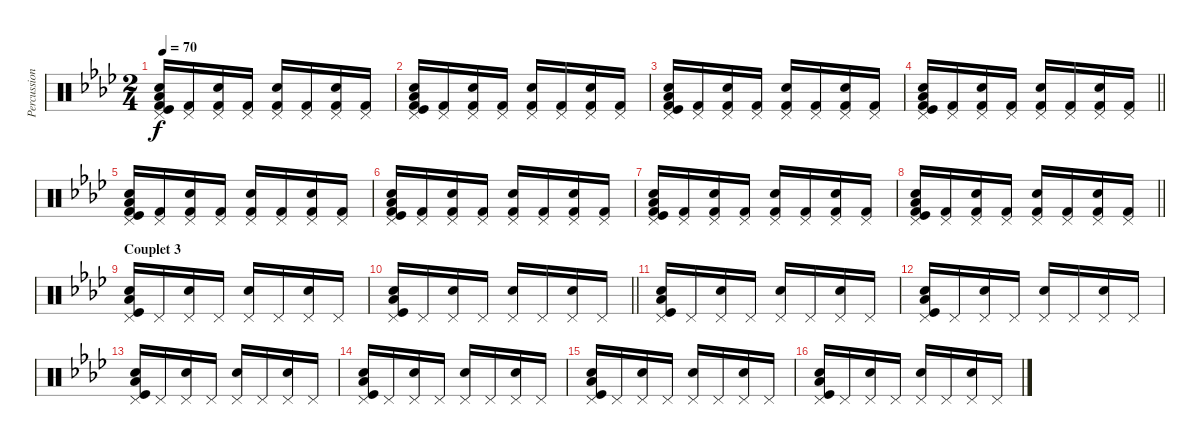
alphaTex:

\track ("Percussions" "Percussion") {instrument percussion}
\staff {score}
\articulation defaults
\ts (2 4)
\tempo 70
\clef neutral
\ks fminor
("Electric Snare (hit)" "Kick (hit)" "Pedal Hi-Hat (hit)" "Low Floor Tom (hit)" "Kick (hit) 2").16{dy f} ("Pedal Hi-Hat (hit)" "Kick (hit) 2").16 ("Electric Snare (hit)" "Pedal Hi-Hat (hit)" "Kick (hit) 2").16 ("Pedal Hi-Hat (hit)" "Kick (hit) 2").16 ("Electric Snare (hit)" "Pedal Hi-Hat (hit)" "Kick (hit) 2").16 ("Pedal Hi-Hat (hit)" "Kick (hit) 2").16 ("Electric Snare (hit)" "Pedal Hi-Hat (hit)" "Kick (hit) 2").16 ("Pedal Hi-Hat (hit)" "Kick (hit) 2").16 |
("Electric Snare (hit)" "Kick (hit)" "Pedal Hi-Hat (hit)" "Low Floor Tom (hit)" "Kick (hit) 2").16 ("Pedal Hi-Hat (hit)" "Kick (hit) 2").16 ("Electric Snare (hit)" "Pedal Hi-Hat (hit)" "Kick (hit) 2").16 ("Pedal Hi-Hat (hit)" "Kick (hit) 2").16 ("Electric Snare (hit)" "Pedal Hi-Hat (hit)" "Kick (hit) 2").16 ("Pedal Hi-Hat (hit)" "Kick (hit) 2").16 ("Electric Snare (hit)" "Pedal Hi-Hat (hit)" "Kick (hit) 2").16 ("Pedal Hi-Hat (hit)" "Kick (hit) 2").16 |
("Electric Snare (hit)" "Kick (hit)" "Pedal Hi-Hat (hit)" "Low Floor Tom (hit)" "Kick (hit) 2").16 ("Pedal Hi-Hat (hit)" "Kick (hit) 2").16 ("Electric Snare (hit)" "Pedal Hi-Hat (hit)" "Kick (hit) 2").16 ("Pedal Hi-Hat (hit)" "Kick (hit) 2").16 ("Electric Snare (hit)" "Pedal Hi-Hat (hit)" "Kick (hit) 2").16 ("Pedal Hi-Hat (hit)" "Kick (hit) 2").16 ("Electric Snare (hit)" "Pedal Hi-Hat (hit)" "Kick (hit) 2").16 ("Pedal Hi-Hat (hit)" "Kick (hit) 2").16 |
\barLineRight lightlight
("Electric Snare (hit)" "Kick (hit)" "Pedal Hi-Hat (hit)" "Low Floor Tom (hit)" "Kick (hit) 2").16 ("Pedal Hi-Hat (hit)" "Kick (hit) 2").16 ("Electric Snare (hit)" "Pedal Hi-Hat (hit)" "Kick (hit) 2").16 ("Pedal Hi-Hat (hit)" "Kick (hit) 2").16 ("Electric Snare (hit)" "Pedal Hi-Hat (hit)" "Kick (hit) 2").16 ("Pedal Hi-Hat (hit)" "Kick (hit) 2").16 ("Electric Snare (hit)" "Pedal Hi-Hat (hit)" "Kick (hit) 2").16 ("Pedal Hi-Hat (hit)" "Kick (hit) 2").16 |
("Electric Snare (hit)" "Kick (hit)" "Pedal Hi-Hat (hit)" "Low Floor Tom (hit)" "Kick (hit) 2").16 ("Pedal Hi-Hat (hit)" "Kick (hit) 2").16 ("Electric Snare (hit)" "Pedal Hi-Hat (hit)" "Kick (hit) 2").16 ("Pedal Hi-Hat (hit)" "Kick (hit) 2").16 ("Electric Snare (hit)" "Pedal Hi-Hat (hit)" "Kick (hit) 2").16 ("Pedal Hi-Hat (hit)" "Kick (hit) 2").16 ("Electric Snare (hit)" "Pedal Hi-Hat (hit)" "Kick (hit) 2").16 ("Pedal Hi-Hat (hit)" "Kick (hit) 2").16 |
("Electric Snare (hit)" "Kick (hit)" "Pedal Hi-Hat (hit)" "Low Floor Tom (hit)" "Kick (hit) 2").16 ("Pedal Hi-Hat (hit)" "Kick (hit) 2").16 ("Electric Snare (hit)" "Pedal Hi-Hat (hit)" "Kick (hit) 2").16 ("Pedal Hi-Hat (hit)" "Kick (hit) 2").16 ("Electric Snare (hit)" "Pedal Hi-Hat (hit)" "Kick (hit) 2").16 ("Pedal Hi-Hat (hit)" "Kick (hit) 2").16 ("Electric Snare (hit)" "Pedal Hi-Hat (hit)" "Kick (hit) 2").16 ("Pedal Hi-Hat (hit)" "Kick (hit) 2").16 |
("Electric Snare (hit)" "Kick (hit)" "Pedal Hi-Hat (hit)" "Low Floor Tom (hit)" "Kick (hit) 2").16 ("Pedal Hi-Hat (hit)" "Kick (hit) 2").16 ("Electric Snare (hit)" "Pedal Hi-Hat (hit)" "Kick (hit) 2").16 ("Pedal Hi-Hat (hit)" "Kick (hit) 2").16 ("Electric Snare (hit)" "Pedal Hi-Hat (hit)" "Kick (hit) 2").16 ("Pedal Hi-Hat (hit)" "Kick (hit) 2").16 ("Electric Snare (hit)" "Pedal Hi-Hat (hit)" "Kick (hit) 2").16 ("Pedal Hi-Hat (hit)" "Kick (hit) 2").16 |
\barLineRight lightlight
("Electric Snare (hit)" "Kick (hit)" "Pedal Hi-Hat (hit)" "Low Floor Tom (hit)" "Kick (hit) 2").16 ("Pedal Hi-Hat (hit)" "Kick (hit) 2").16 ("Electric Snare (hit)" "Pedal Hi-Hat (hit)" "Kick (hit) 2").16 ("Pedal Hi-Hat (hit)" "Kick (hit) 2").16 ("Electric Snare (hit)" "Pedal Hi-Hat (hit)" "Kick (hit) 2").16 ("Pedal Hi-Hat (hit)" "Kick (hit) 2").16 ("Electric Snare (hit)" "Pedal Hi-Hat (hit)" "Kick (hit) 2").16 ("Pedal Hi-Hat (hit)" "Kick (hit) 2").16 |
\section ("" "Couplet 3")
("Electric Snare (hit)" "Kick (hit)" "Pedal Hi-Hat (hit)" "Low Floor Tom (hit)").16 "Pedal Hi-Hat (hit)".16 ("Electric Snare (hit)" "Pedal Hi-Hat (hit)").16 "Pedal Hi-Hat (hit)".16 ("Electric Snare (hit)" "Pedal Hi-Hat (hit)").16 "Pedal Hi-Hat (hit)".16 ("Electric Snare (hit)" "Pedal Hi-Hat (hit)").16 "Pedal Hi-Hat (hit)".16 |
\barLineRight lightlight
("Electric Snare (hit)" "Kick (hit)" "Pedal Hi-Hat (hit)" "Low Floor Tom (hit)").16 "Pedal Hi-Hat (hit)".16 ("Electric Snare (hit)" "Pedal Hi-Hat (hit)").16 "Pedal Hi-Hat (hit)".16 ("Electric Snare (hit)" "Pedal Hi-Hat (hit)").16 "Pedal Hi-Hat (hit)".16 ("Electric Snare (hit)" "Pedal Hi-Hat (hit)").16 "Pedal Hi-Hat (hit)".16 |
("Electric Snare (hit)" "Kick (hit)" "Pedal Hi-Hat (hit)" "Low Floor Tom (hit)").16 "Pedal Hi-Hat (hit)".16 ("Electric Snare (hit)" "Pedal Hi-Hat (hit)").16 "Pedal Hi-Hat (hit)".16 ("Electric Snare (hit)" "Pedal Hi-Hat (hit)").16 "Pedal Hi-Hat (hit)".16 ("Electric Snare (hit)" "Pedal Hi-Hat (hit)").16 "Pedal Hi-Hat (hit)".16 |
("Electric Snare (hit)" "Kick (hit)" "Pedal Hi-Hat (hit)" "Low Floor Tom (hit)").16 "Pedal Hi-Hat (hit)".16 ("Electric Snare (hit)" "Pedal Hi-Hat (hit)").16 "Pedal Hi-Hat (hit)".16 ("Electric Snare (hit)" "Pedal Hi-Hat (hit)").16 "Pedal Hi-Hat (hit)".16 ("Electric Snare (hit)" "Pedal Hi-Hat (hit)").16 "Pedal Hi-Hat (hit)".16 |
("Electric Snare (hit)" "Kick (hit)" "Pedal Hi-Hat (hit)" "Low Floor Tom (hit)").16 "Pedal Hi-Hat (hit)".16 ("Electric Snare (hit)" "Pedal Hi-Hat (hit)").16 "Pedal Hi-Hat (hit)".16 ("Electric Snare (hit)" "Pedal Hi-Hat (hit)").16 "Pedal Hi-Hat (hit)".16 ("Electric Snare (hit)" "Pedal Hi-Hat (hit)").16 "Pedal Hi-Hat (hit)".16 |
("Electric Snare (hit)" "Kick (hit)" "Pedal Hi-Hat (hit)" "Low Floor Tom (hit)").16 "Pedal Hi-Hat (hit)".16 ("Electric Snare (hit)" "Pedal Hi-Hat (hit)").16 "Pedal Hi-Hat (hit)".16 ("Electric Snare (hit)" "Pedal Hi-Hat (hit)").16 "Pedal Hi-Hat (hit)".16 ("Electric Snare (hit)" "Pedal Hi-Hat (hit)").16 "Pedal Hi-Hat (hit)".16 |
("Electric Snare (hit)" "Kick (hit)" "Pedal Hi-Hat (hit)" "Low Floor Tom (hit)").16 "Pedal Hi-Hat (hit)".16 ("Electric Snare (hit)" "Pedal Hi-Hat (hit)").16 "Pedal Hi-Hat (hit)".16 ("Electric Snare (hit)" "Pedal Hi-Hat (hit)").16 "Pedal Hi-Hat (hit)".16 ("Electric Snare (hit)" "Pedal Hi-Hat (hit)").16 "Pedal Hi-Hat (hit)".16 |
("Electric Snare (hit)" "Kick (hit)" "Pedal Hi-Hat (hit)" "Low Floor Tom (hit)").16 "Pedal Hi-Hat (hit)".16 ("Electric Snare (hit)" "Pedal Hi-Hat (hit)").16 "Pedal Hi-Hat (hit)".16 ("Electric Snare (hit)" "Pedal Hi-Hat (hit)").16 "Pedal Hi-Hat (hit)".16 ("Electric Snare (hit)" "Pedal Hi-Hat (hit)").16 "Pedal Hi-Hat (hit)".16
